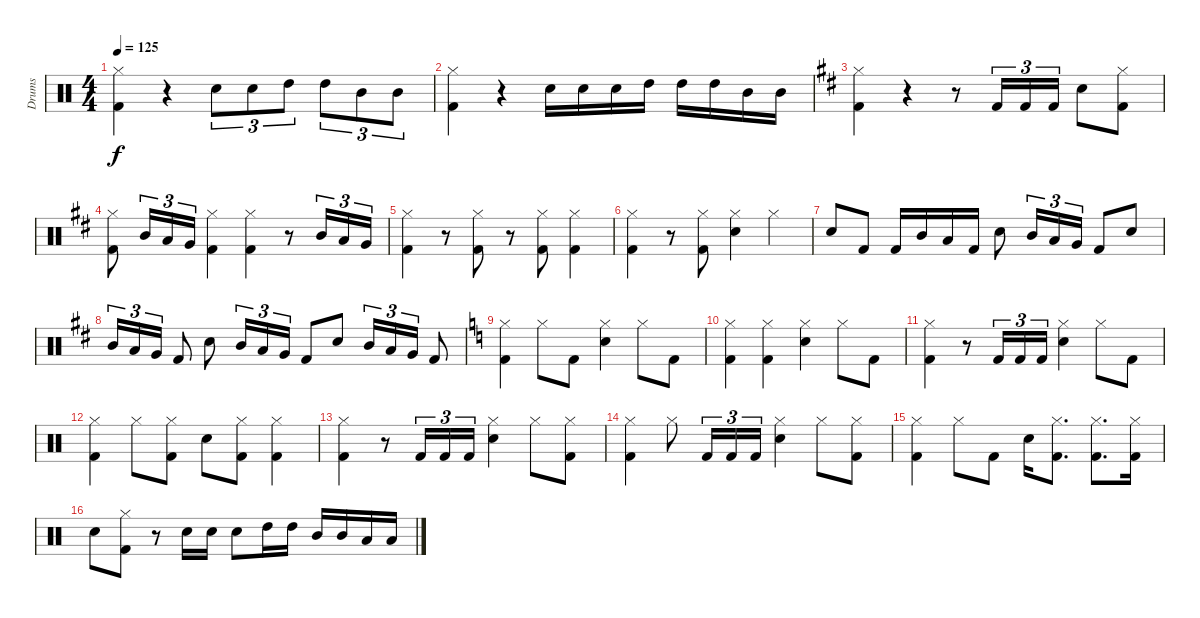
\track ("Drums" "Drums") {instrument percussion}
\staff {score}
\articulation defaults
\ts (4 4)
\tempo 125
\clef neutral
\ks aminor
("Hi-Hat (closed)" "Kick (hit) 2").4{dy f} r.4 "Electric Snare (hit)".8{tu (3 2)} "Electric Snare (hit)".8{tu (3 2)} "High Tom (hit)".8{tu (3 2)} "High Tom (hit)".8{tu (3 2)} "Mid Tom (hit)".8{tu (3 2)} "Mid Tom (hit)".8{tu (3 2)} |
("Hi-Hat (closed)" "Kick (hit) 2").4 r.4 "Electric Snare (hit)".16 "Electric Snare (hit)".16 "Electric Snare (hit)".16 "High Tom (hit)".16 "High Tom (hit)".16 "High Tom (hit)".16 "Mid Tom (hit)".16 "Mid Tom (hit)".16 |
\ks bminor
("Hi-Hat (closed)" "Kick (hit) 2").4 r.4 r.8 "Kick (hit) 2".16{tu (3 2)} "Kick (hit) 2".16{tu (3 2)} "Kick (hit) 2".16{tu (3 2)} "Electric Snare (hit)".8 ("Hi-Hat (closed)" "Kick (hit) 2").8 |
("Hi-Hat (closed)" "Kick (hit) 2").8 "Mid Tom (hit)".16{tu (3 2)} "Low Tom (hit)".16{tu (3 2)} "Very Low Tom (hit)".16{tu (3 2)} ("Hi-Hat (closed)" "Kick (hit) 2").4 ("Hi-Hat (closed)" "Kick (hit) 2").4 r.8 "Mid Tom (hit)".16{tu (3 2)} "Low Tom (hit)".16{tu (3 2)} "Very Low Tom (hit)".16{tu (3 2)} |
("Hi-Hat (closed)" "Kick (hit) 2").4 r.8 ("Hi-Hat (closed)" "Kick (hit) 2").8 r.8 ("Hi-Hat (closed)" "Kick (hit) 2").8 ("Hi-Hat (closed)" "Kick (hit) 2").4 |
("Hi-Hat (closed)" "Kick (hit) 2").4 r.8 ("Hi-Hat (closed)" "Kick (hit) 2").8 ("Hi-Hat (closed)" "Electric Snare (hit)").4 "Hi-Hat (closed)".4 |
"Electric Snare (hit)".8 "Kick (hit) 2".8 "Kick (hit) 2".16 "Mid Tom (hit)".16 "Low Tom (hit)".16 "Kick (hit) 2".16 "Electric Snare (hit)".8 "Mid Tom (hit)".16{tu (3 2)} "Low Tom (hit)".16{tu (3 2)} "Very Low Tom (hit)".16{tu (3 2)} "Kick (hit) 2".8 "Electric Snare (hit)".8 |
"Mid Tom (hit)".16{tu (3 2)} "Low Tom (hit)".16{tu (3 2)} "Very Low Tom (hit)".16{tu (3 2)} "Kick (hit) 2".8 "Electric Snare (hit)".8 "Mid Tom (hit)".16{tu (3 2)} "Low Tom (hit)".16{tu (3 2)} "Very Low Tom (hit)".16{tu (3 2)} "Kick (hit) 2".8 "Electric Snare (hit)".8 "Mid Tom (hit)".16{tu (3 2)} "Low Tom (hit)".16{tu (3 2)} "Very Low Tom (hit)".16{tu (3 2)} "Kick (hit) 2".8 |
\ks aminor
("Hi-Hat (closed)" "Kick (hit) 2").4 "Hi-Hat (closed)".8 "Kick (hit) 2".8 ("Hi-Hat (closed)" "Electric Snare (hit)").4 "Hi-Hat (closed)".8 "Kick (hit) 2".8 |
("Hi-Hat (closed)" "Kick (hit) 2").4 ("Hi-Hat (closed)" "Kick (hit) 2").4 ("Hi-Hat (closed)" "Electric Snare (hit)").4 "Hi-Hat (closed)".8 "Kick (hit) 2".8 |
("Hi-Hat (closed)" "Kick (hit) 2").4 r.8 "Kick (hit) 2".16{tu (3 2)} "Kick (hit) 2".16{tu (3 2)} "Kick (hit) 2".16{tu (3 2)} ("Hi-Hat (closed)" "Electric Snare (hit)").4 "Hi-Hat (closed)".8 "Kick (hit) 2".8 |
("Hi-Hat (closed)" "Kick (hit) 2").4 "Hi-Hat (closed)".8 ("Hi-Hat (closed)" "Kick (hit) 2").8 "Electric Snare (hit)".8 ("Hi-Hat (closed)" "Kick (hit) 2").8 ("Hi-Hat (closed)" "Kick (hit) 2").4 |
("Hi-Hat (closed)" "Kick (hit) 2").4 r.8 "Kick (hit) 2".16{tu (3 2)} "Kick (hit) 2".16{tu (3 2)} "Kick (hit) 2".16{tu (3 2)} ("Hi-Hat (closed)" "Electric Snare (hit)").4 "Hi-Hat (closed)".8 ("Hi-Hat (closed)" "Kick (hit) 2").8 |
("Hi-Hat (closed)" "Kick (hit) 2").4 "Hi-Hat (closed)".8 "Kick (hit) 2".16{tu (3 2)} "Kick (hit) 2".16{tu (3 2)} "Kick (hit) 2".16{tu (3 2)} ("Hi-Hat (closed)" "Electric Snare (hit)").4 "Hi-Hat (closed)".8 ("Hi-Hat (closed)" "Kick (hit) 2").8 |
("Hi-Hat (closed)" "Kick (hit) 2").4 "Hi-Hat (closed)".8 "Kick (hit) 2".8 "Electric Snare (hit)".16 ("Hi-Hat (closed)" "Kick (hit) 2").8{d} ("Hi-Hat (closed)" "Kick (hit) 2").8{d} ("Hi-Hat (closed)" "Kick (hit) 2").16 |
"Electric Snare (hit)".8 ("Hi-Hat (closed)" "Kick (hit) 2").8 r.8 "Electric Snare (hit)".16 "Electric Snare (hit)".16 "Electric Snare (hit)".8 "High Tom (hit)".16 "High Tom (hit)".16 "Mid Tom (hit)".16 "Mid Tom (hit)".16 "Low Tom (hit)".16 "Low Tom (hit)".16
